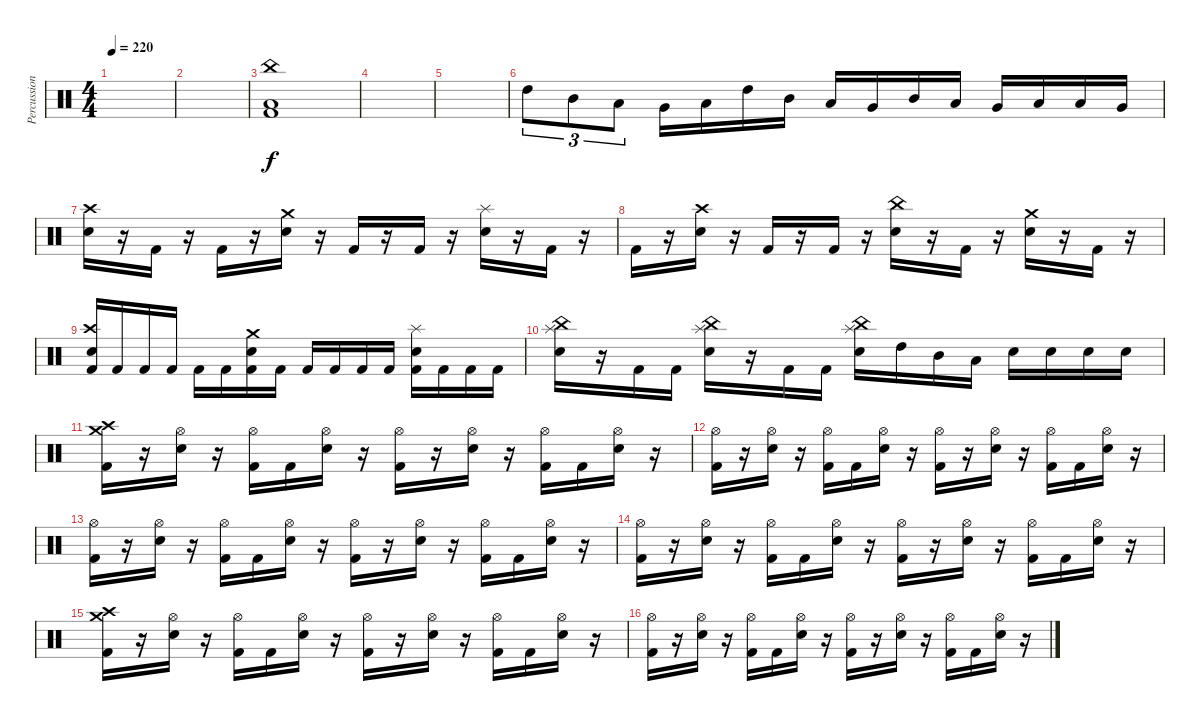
\track ("Percussion" "Percussion") {instrument percussion}
\staff {score}
\articulation defaults
\ts (4 4)
\tempo 220
\clef neutral
\ks c
|
|
("China (hit)" "Low Floor Tom (hit)" "Kick (hit) 2").1 |
|
|
"High Tom (hit)".8{tu (3 2)} "Mid Tom (hit)".8{tu (3 2)} "Low Tom (hit)".8{tu (3 2)} "Very Low Tom (hit)".16 "Low Floor Tom (hit)".16 "High Tom (hit)".16 "Mid Tom (hit)".16 "Low Tom (hit)".16 "Very Low Tom (hit)".16 "Mid Tom (hit)".16 "Low Tom (hit)".16 "Very Low Tom (hit)".16 "Low Floor Tom (hit)".16 "Low Tom (hit)".16 "Very Low Tom (hit)".16 |
("Crash high (hit)" "Electric Snare (hit)").16 r.16 "Kick (hit) 2".16 r.16 "Kick (hit) 2".16 r.16 ("Crash medium (hit)" "Electric Snare (hit)").16 r.16 "Kick (hit) 2".16 r.16 "Kick (hit) 2".16 r.16 ("Splash (hit)" "Electric Snare (hit)").16 r.16 "Kick (hit) 2".16 r.16 |
"Kick (hit) 2".16 r.16 ("Crash high (hit)" "Electric Snare (hit)").16 r.16 "Kick (hit) 2".16 r.16 "Kick (hit) 2".16 r.16 ("China (hit)" "Electric Snare (hit)").16 r.16 "Kick (hit) 2".16 r.16 ("Crash medium (hit)" "Electric Snare (hit)").16 r.16 "Kick (hit) 2".16 r.16 |
("Crash high (hit)" "Electric Snare (hit)" "Kick (hit) 2").16 "Kick (hit) 2".16 "Kick (hit) 2".16 "Kick (hit) 2".16 "Kick (hit) 2".16 "Kick (hit) 2".16 ("Crash medium (hit)" "Electric Snare (hit)" "Kick (hit) 2").16 "Kick (hit) 2".16 "Kick (hit) 2".16 "Kick (hit) 2".16 "Kick (hit) 2".16 "Kick (hit) 2".16 ("Splash (hit)" "Electric Snare (hit)" "Kick (hit) 2").16 "Kick (hit) 2".16 "Kick (hit) 2".16 "Kick (hit) 2".16 |
("Splash (hit)" "China (hit)" "Electric Snare (hit)").16 r.16 "Kick (hit) 2".16 "Kick (hit) 2".16 ("Splash (hit)" "China (hit)" "Electric Snare (hit)").16 r.16 "Kick (hit) 2".16 "Kick (hit) 2".16 ("Splash (hit)" "China (hit)" "Electric Snare (hit)").16 "High Tom (hit)".16 "Mid Tom (hit)".16 "Low Tom (hit)".16 "Electric Snare (hit)".16 "Electric Snare (hit)".16 "Electric Snare (hit)".16 "Electric Snare (hit)".16 |
("Crash medium (hit)" "Crash high (hit)" "Kick (hit) 2").16 r.16 ("Hi-Hat (open)" "Electric Snare (hit)").16 r.16 ("Hi-Hat (open)" "Kick (hit) 2").16 "Kick (hit) 2".16 ("Hi-Hat (open)" "Electric Snare (hit)").16 r.16 ("Hi-Hat (open)" "Kick (hit) 2").16 r.16 ("Hi-Hat (open)" "Electric Snare (hit)").16 r.16 ("Hi-Hat (open)" "Kick (hit) 2").16 "Kick (hit) 2".16 ("Hi-Hat (open)" "Electric Snare (hit)").16 r.16 |
("Hi-Hat (open)" "Kick (hit) 2").16 r.16 ("Hi-Hat (open)" "Electric Snare (hit)").16 r.16 ("Hi-Hat (open)" "Kick (hit) 2").16 "Kick (hit) 2".16 ("Hi-Hat (open)" "Electric Snare (hit)").16 r.16 ("Hi-Hat (open)" "Kick (hit) 2").16 r.16 ("Hi-Hat (open)" "Electric Snare (hit)").16 r.16 ("Hi-Hat (open)" "Kick (hit) 2").16 "Kick (hit) 2".16 ("Hi-Hat (open)" "Electric Snare (hit)").16 r.16 |
("Hi-Hat (open)" "Kick (hit) 2").16 r.16 ("Hi-Hat (open)" "Electric Snare (hit)").16 r.16 ("Hi-Hat (open)" "Kick (hit) 2").16 "Kick (hit) 2".16 ("Hi-Hat (open)" "Electric Snare (hit)").16 r.16 ("Hi-Hat (open)" "Kick (hit) 2").16 r.16 ("Hi-Hat (open)" "Electric Snare (hit)").16 r.16 ("Hi-Hat (open)" "Kick (hit) 2").16 "Kick (hit) 2".16 ("Hi-Hat (open)" "Electric Snare (hit)").16 r.16 |
("Hi-Hat (open)" "Kick (hit) 2").16 r.16 ("Hi-Hat (open)" "Electric Snare (hit)").16 r.16 ("Hi-Hat (open)" "Kick (hit) 2").16 "Kick (hit) 2".16 ("Hi-Hat (open)" "Electric Snare (hit)").16 r.16 ("Hi-Hat (open)" "Kick (hit) 2").16 r.16 ("Hi-Hat (open)" "Electric Snare (hit)").16 r.16 ("Hi-Hat (open)" "Kick (hit) 2").16 "Kick (hit) 2".16 ("Hi-Hat (open)" "Electric Snare (hit)").16 r.16 |
("Crash medium (hit)" "Crash high (hit)" "Kick (hit) 2").16 r.16 ("Hi-Hat (open)" "Electric Snare (hit)").16 r.16 ("Hi-Hat (open)" "Kick (hit) 2").16 "Kick (hit) 2".16 ("Hi-Hat (open)" "Electric Snare (hit)").16 r.16 ("Hi-Hat (open)" "Kick (hit) 2").16 r.16 ("Hi-Hat (open)" "Electric Snare (hit)").16 r.16 ("Hi-Hat (open)" "Kick (hit) 2").16 "Kick (hit) 2".16 ("Hi-Hat (open)" "Electric Snare (hit)").16 r.16 |
("Hi-Hat (open)" "Kick (hit) 2").16 r.16 ("Hi-Hat (open)" "Electric Snare (hit)").16 r.16 ("Hi-Hat (open)" "Kick (hit) 2").16 "Kick (hit) 2".16 ("Hi-Hat (open)" "Electric Snare (hit)").16 r.16 ("Hi-Hat (open)" "Kick (hit) 2").16 r.16 ("Hi-Hat (open)" "Electric Snare (hit)").16 r.16 ("Hi-Hat (open)" "Kick (hit) 2").16 "Kick (hit) 2".16 ("Hi-Hat (open)" "Electric Snare (hit)").16 r.16
